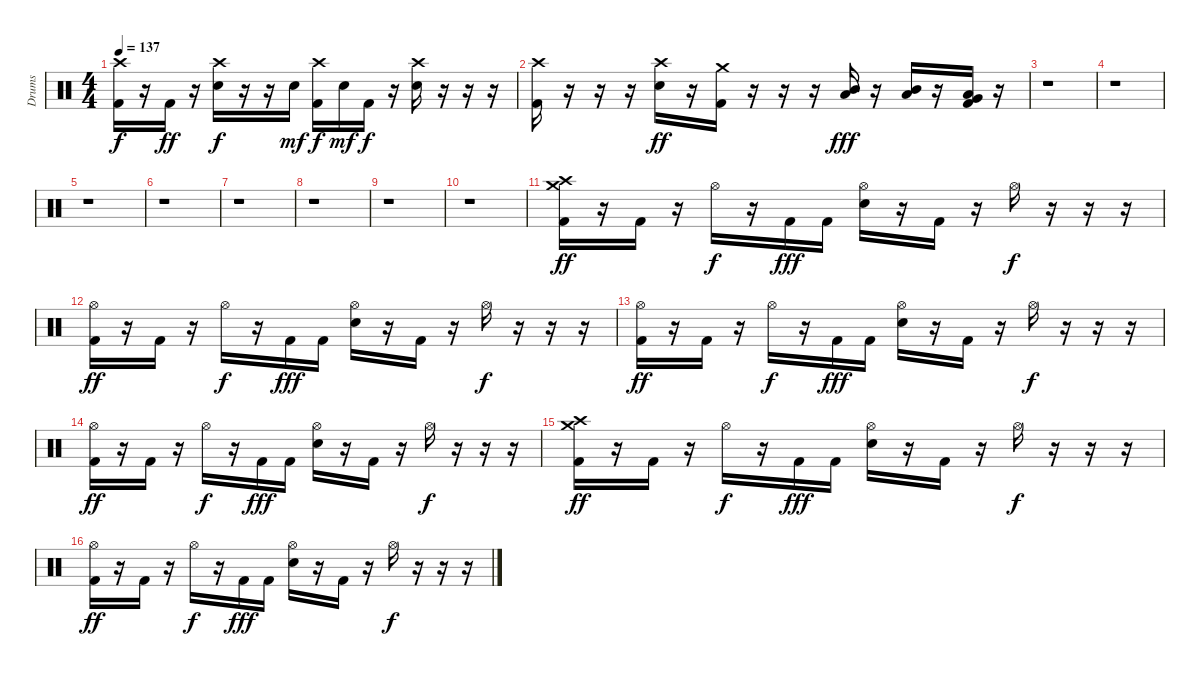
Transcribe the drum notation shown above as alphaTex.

\track ("Drums" "Drums") {instrument percussion}
\staff {score}
\articulation defaults
\ts (4 4)
\tempo 137
\clef neutral
\ks c
("Crash high (hit)" "Kick (hit) 2").16{dy f} r.16 "Kick (hit) 2".16{dy ff} r.16 ("Crash high (hit)" "Electric Snare (hit)").16{dy f} r.16 r.16 "Electric Snare (hit)".16{dy mf} ("Crash high (hit)" "Kick (hit) 2").16{dy f} "Electric Snare (hit)".16{dy mf} "Kick (hit) 2".16{dy f} r.16 ("Crash high (hit)" "Electric Snare (hit)").16 r.16 r.16 r.16 |
("Crash high (hit)" "Kick (hit) 2").16 r.16 r.16 r.16 ("Crash high (hit)" "Electric Snare (hit)").16{dy ff} r.16 ("Crash medium (hit)" "Kick (hit) 2").16 r.16 r.16 r.16 ("Mid Tom (hit)" "Low Tom (hit)").16{dy fff} r.16 ("Mid Tom (hit)" "Low Tom (hit)").16 r.16 ("Very Low Tom (hit)" "Low Tom (hit)" "Kick (hit) 2").16 r.16 |
r.1 |
r.1 |
r.1 |
r.1 |
r.1 |
r.1 |
r.1 |
r.1 |
("Crash medium (hit)" "Crash high (hit)" "Kick (hit) 2").16{dy ff} r.16 "Kick (hit) 2".16 r.16 "Hi-Hat (open)".16{dy f} r.16 "Kick (hit) 2".16{dy fff} "Kick (hit) 2".16 ("Hi-Hat (open)" "Electric Snare (hit)").16 r.16 "Kick (hit) 2".16 r.16 "Hi-Hat (open)".16{dy f} r.16 r.16 r.16 |
("Hi-Hat (open)" "Kick (hit) 2").16{dy ff} r.16 "Kick (hit) 2".16 r.16 "Hi-Hat (open)".16{dy f} r.16 "Kick (hit) 2".16{dy fff} "Kick (hit) 2".16 ("Hi-Hat (open)" "Electric Snare (hit)").16 r.16 "Kick (hit) 2".16 r.16 "Hi-Hat (open)".16{dy f} r.16 r.16 r.16 |
("Hi-Hat (open)" "Kick (hit) 2").16{dy ff} r.16 "Kick (hit) 2".16 r.16 "Hi-Hat (open)".16{dy f} r.16 "Kick (hit) 2".16{dy fff} "Kick (hit) 2".16 ("Hi-Hat (open)" "Electric Snare (hit)").16 r.16 "Kick (hit) 2".16 r.16 "Hi-Hat (open)".16{dy f} r.16 r.16 r.16 |
("Hi-Hat (open)" "Kick (hit) 2").16{dy ff} r.16 "Kick (hit) 2".16 r.16 "Hi-Hat (open)".16{dy f} r.16 "Kick (hit) 2".16{dy fff} "Kick (hit) 2".16 ("Hi-Hat (open)" "Electric Snare (hit)").16 r.16 "Kick (hit) 2".16 r.16 "Hi-Hat (open)".16{dy f} r.16 r.16 r.16 |
("Crash medium (hit)" "Crash high (hit)" "Kick (hit) 2").16{dy ff} r.16 "Kick (hit) 2".16 r.16 "Hi-Hat (open)".16{dy f} r.16 "Kick (hit) 2".16{dy fff} "Kick (hit) 2".16 ("Hi-Hat (open)" "Electric Snare (hit)").16 r.16 "Kick (hit) 2".16 r.16 "Hi-Hat (open)".16{dy f} r.16 r.16 r.16 |
("Hi-Hat (open)" "Kick (hit) 2").16{dy ff} r.16 "Kick (hit) 2".16 r.16 "Hi-Hat (open)".16{dy f} r.16 "Kick (hit) 2".16{dy fff} "Kick (hit) 2".16 ("Hi-Hat (open)" "Electric Snare (hit)").16 r.16 "Kick (hit) 2".16 r.16 "Hi-Hat (open)".16{dy f} r.16 r.16 r.16
